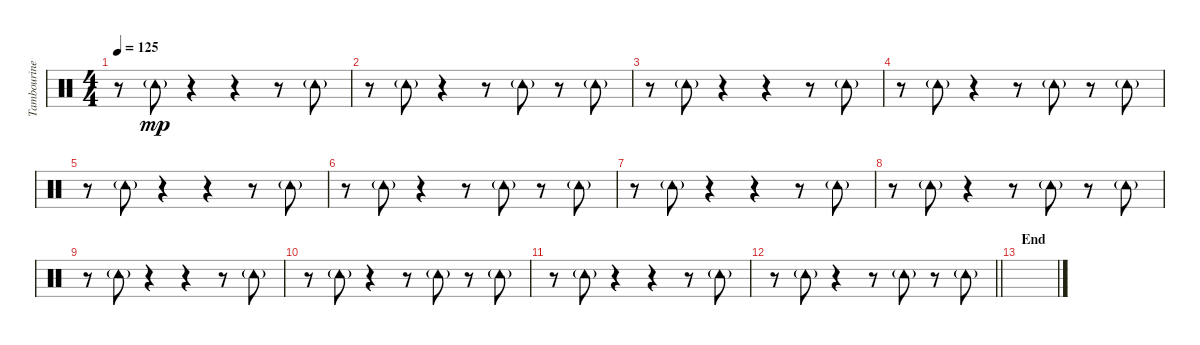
\track ("Tambourine" "Tambourine") {instrument percussion}
\staff {score}
\articulation defaults
\ts (4 4)
\tempo 125
\clef neutral
\ks c
r.8{dy mp} "Tambourine (hit)"{g}.8 r.4 r.4 r.8 "Tambourine (hit)"{g}.8 |
r.8 "Tambourine (hit)"{g}.8 r.4 r.8 "Tambourine (hit)"{g}.8 r.8 "Tambourine (hit)"{g}.8 |
r.8 "Tambourine (hit)"{g}.8 r.4 r.4 r.8 "Tambourine (hit)"{g}.8 |
r.8 "Tambourine (hit)"{g}.8 r.4 r.8 "Tambourine (hit)"{g}.8 r.8 "Tambourine (hit)"{g}.8 |
r.8 "Tambourine (hit)"{g}.8 r.4 r.4 r.8 "Tambourine (hit)"{g}.8 |
r.8 "Tambourine (hit)"{g}.8 r.4 r.8 "Tambourine (hit)"{g}.8 r.8 "Tambourine (hit)"{g}.8 |
r.8 "Tambourine (hit)"{g}.8 r.4 r.4 r.8 "Tambourine (hit)"{g}.8 |
r.8 "Tambourine (hit)"{g}.8 r.4 r.8 "Tambourine (hit)"{g}.8 r.8 "Tambourine (hit)"{g}.8 |
r.8 "Tambourine (hit)"{g}.8 r.4 r.4 r.8 "Tambourine (hit)"{g}.8 |
r.8 "Tambourine (hit)"{g}.8 r.4 r.8 "Tambourine (hit)"{g}.8 r.8 "Tambourine (hit)"{g}.8 |
r.8 "Tambourine (hit)"{g}.8 r.4 r.4 r.8 "Tambourine (hit)"{g}.8 |
\barLineRight lightlight
r.8 "Tambourine (hit)"{g}.8 r.4 r.8 "Tambourine (hit)"{g}.8 r.8 "Tambourine (hit)"{g}.8 |
\section ("" "End")
